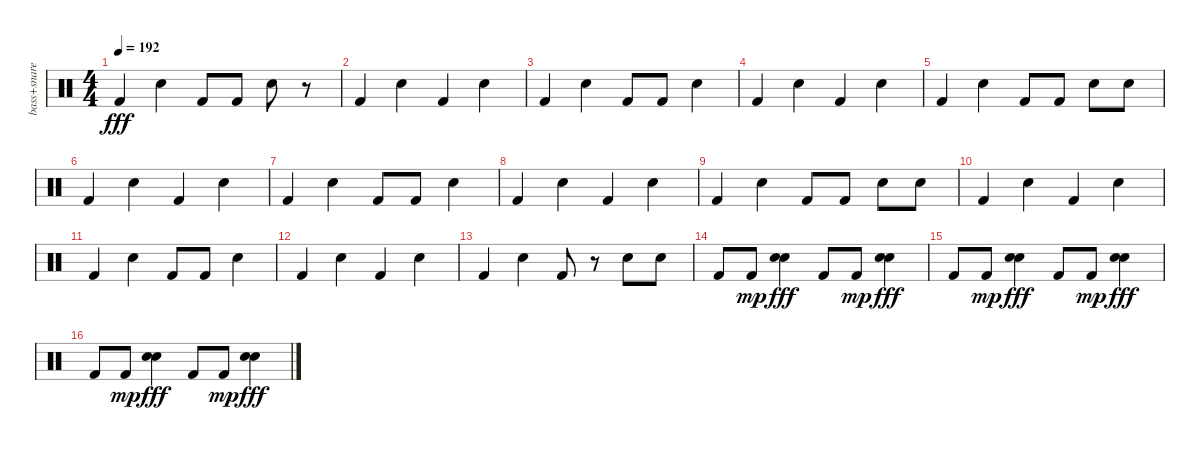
\track ("bass+snare" "bass+snare") {instrument percussion}
\staff {score}
\articulation defaults
\ts (4 4)
\tempo 192
\clef neutral
\ks c "Kick (hit) 2".4{dy fff} "Snare (hit) 2".4 "Kick (hit) 2".8 "Kick (hit) 2".8 "Snare (hit) 2".8
r.8 |
"Kick (hit) 2".4 "Snare (hit) 2".4 "Kick (hit) 2".4 "Snare (hit) 2".4 |
"Kick (hit) 2".4 "Snare (hit) 2".4 "Kick (hit) 2".8 "Kick (hit) 2".8 "Snare (hit) 2".4 |
"Kick (hit) 2".4 "Snare (hit) 2".4 "Kick (hit) 2".4 "Snare (hit) 2".4 |
"Kick (hit) 2".4 "Snare (hit) 2".4 "Kick (hit) 2".8 "Kick (hit) 2".8 "Snare (hit) 2".8 "Snare (hit) 2".8 |
"Kick (hit) 2".4 "Snare (hit) 2".4 "Kick (hit) 2".4 "Snare (hit) 2".4 |
"Kick (hit) 2".4 "Snare (hit) 2".4 "Kick (hit) 2".8 "Kick (hit) 2".8 "Snare (hit) 2".4 |
"Kick (hit) 2".4 "Snare (hit) 2".4 "Kick (hit) 2".4 "Snare (hit) 2".4 |
"Kick (hit) 2".4 "Snare (hit) 2".4 "Kick (hit) 2".8 "Kick (hit) 2".8 "Snare (hit) 2".8 "Snare (hit) 2".8 |
"Kick (hit) 2".4 "Snare (hit) 2".4 "Kick (hit) 2".4 "Snare (hit) 2".4 |
"Kick (hit) 2".4 "Snare (hit) 2".4 "Kick (hit) 2".8 "Kick (hit) 2".8 "Snare (hit) 2".4 |
"Kick (hit) 2".4 "Snare (hit) 2".4 "Kick (hit) 2".4 "Snare (hit) 2".4 |
"Kick (hit) 2".4 "Snare (hit) 2".4 "Kick (hit) 2".8 r.8 "Snare (hit) 2".8 "Snare (hit) 2".8 |
"Kick (hit) 2".8 "Kick (hit) 2".8{dy mp} ("Electric Snare (hit)" "Electric Snare (hit)").4{dy fff} "Kick (hit) 2".8 "Kick (hit) 2".8{dy mp} ("Electric Snare (hit)" "Electric Snare (hit)").4{dy fff} |
"Kick (hit) 2".8 "Kick (hit) 2".8{dy mp} ("Electric Snare (hit)" "Electric Snare (hit)").4{dy fff} "Kick (hit) 2".8 "Kick (hit) 2".8{dy mp} ("Electric Snare (hit)" "Electric Snare (hit)").4{dy fff} |
"Kick (hit) 2".8 "Kick (hit) 2".8{dy mp} ("Electric Snare (hit)" "Electric Snare (hit)").4{dy fff} "Kick (hit) 2".8 "Kick (hit) 2".8{dy mp} ("Electric Snare (hit)" "Electric Snare (hit)").4{dy fff}
